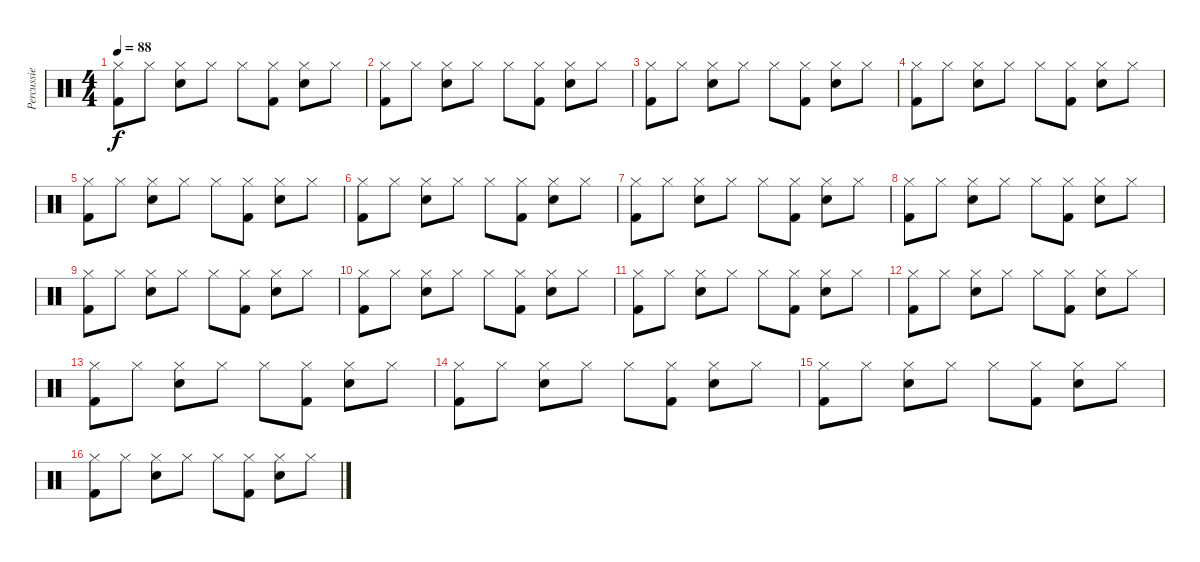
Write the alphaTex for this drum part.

\track ("Percussie" "Percussie") {instrument percussion}
\staff {score}
\articulation defaults
\ts (4 4)
\tempo 88
\clef neutral
\ks c
("Hi-Hat (closed)" "Kick (hit) 2").8{dy f} "Hi-Hat (closed)".8 ("Hi-Hat (closed)" "Snare (hit) 2").8 "Hi-Hat (closed)".8 "Hi-Hat (closed)".8 ("Hi-Hat (closed)" "Kick (hit) 2").8 ("Hi-Hat (closed)" "Snare (hit) 2").8 "Hi-Hat (closed)".8 |
("Hi-Hat (closed)" "Kick (hit) 2").8 "Hi-Hat (closed)".8 ("Hi-Hat (closed)" "Snare (hit) 2").8 "Hi-Hat (closed)".8 "Hi-Hat (closed)".8 ("Hi-Hat (closed)" "Kick (hit) 2").8 ("Hi-Hat (closed)" "Snare (hit) 2").8 "Hi-Hat (closed)".8 |
("Hi-Hat (closed)" "Kick (hit) 2").8 "Hi-Hat (closed)".8 ("Hi-Hat (closed)" "Snare (hit) 2").8 "Hi-Hat (closed)".8 "Hi-Hat (closed)".8 ("Hi-Hat (closed)" "Kick (hit) 2").8 ("Hi-Hat (closed)" "Snare (hit) 2").8 "Hi-Hat (closed)".8 |
("Hi-Hat (closed)" "Kick (hit) 2").8 "Hi-Hat (closed)".8 ("Hi-Hat (closed)" "Snare (hit) 2").8 "Hi-Hat (closed)".8 "Hi-Hat (closed)".8 ("Hi-Hat (closed)" "Kick (hit) 2").8 ("Hi-Hat (closed)" "Snare (hit) 2").8 "Hi-Hat (closed)".8 |
("Hi-Hat (closed)" "Kick (hit) 2").8 "Hi-Hat (closed)".8 ("Hi-Hat (closed)" "Snare (hit) 2").8 "Hi-Hat (closed)".8 "Hi-Hat (closed)".8 ("Hi-Hat (closed)" "Kick (hit) 2").8 ("Hi-Hat (closed)" "Snare (hit) 2").8 "Hi-Hat (closed)".8 |
("Hi-Hat (closed)" "Kick (hit) 2").8 "Hi-Hat (closed)".8 ("Hi-Hat (closed)" "Snare (hit) 2").8 "Hi-Hat (closed)".8 "Hi-Hat (closed)".8 ("Hi-Hat (closed)" "Kick (hit) 2").8 ("Hi-Hat (closed)" "Snare (hit) 2").8 "Hi-Hat (closed)".8 |
("Hi-Hat (closed)" "Kick (hit) 2").8 "Hi-Hat (closed)".8 ("Hi-Hat (closed)" "Snare (hit) 2").8 "Hi-Hat (closed)".8 "Hi-Hat (closed)".8 ("Hi-Hat (closed)" "Kick (hit) 2").8 ("Hi-Hat (closed)" "Snare (hit) 2").8 "Hi-Hat (closed)".8 |
("Hi-Hat (closed)" "Kick (hit) 2").8 "Hi-Hat (closed)".8 ("Hi-Hat (closed)" "Snare (hit) 2").8 "Hi-Hat (closed)".8 "Hi-Hat (closed)".8 ("Hi-Hat (closed)" "Kick (hit) 2").8 ("Hi-Hat (closed)" "Snare (hit) 2").8 "Hi-Hat (closed)".8 |
("Hi-Hat (closed)" "Kick (hit) 2").8 "Hi-Hat (closed)".8 ("Hi-Hat (closed)" "Snare (hit) 2").8 "Hi-Hat (closed)".8 "Hi-Hat (closed)".8 ("Hi-Hat (closed)" "Kick (hit) 2").8 ("Hi-Hat (closed)" "Snare (hit) 2").8 "Hi-Hat (closed)".8 |
("Hi-Hat (closed)" "Kick (hit) 2").8 "Hi-Hat (closed)".8 ("Hi-Hat (closed)" "Snare (hit) 2").8 "Hi-Hat (closed)".8 "Hi-Hat (closed)".8 ("Hi-Hat (closed)" "Kick (hit) 2").8 ("Hi-Hat (closed)" "Snare (hit) 2").8 "Hi-Hat (closed)".8 |
("Hi-Hat (closed)" "Kick (hit) 2").8 "Hi-Hat (closed)".8 ("Hi-Hat (closed)" "Snare (hit) 2").8 "Hi-Hat (closed)".8 "Hi-Hat (closed)".8 ("Hi-Hat (closed)" "Kick (hit) 2").8 ("Hi-Hat (closed)" "Snare (hit) 2").8 "Hi-Hat (closed)".8 |
("Hi-Hat (closed)" "Kick (hit) 2").8 "Hi-Hat (closed)".8 ("Hi-Hat (closed)" "Snare (hit) 2").8 "Hi-Hat (closed)".8 "Hi-Hat (closed)".8 ("Hi-Hat (closed)" "Kick (hit) 2").8 ("Hi-Hat (closed)" "Snare (hit) 2").8 "Hi-Hat (closed)".8 |
("Hi-Hat (closed)" "Kick (hit) 2").8 "Hi-Hat (closed)".8 ("Hi-Hat (closed)" "Snare (hit) 2").8 "Hi-Hat (closed)".8 "Hi-Hat (closed)".8 ("Hi-Hat (closed)" "Kick (hit) 2").8 ("Hi-Hat (closed)" "Snare (hit) 2").8 "Hi-Hat (closed)".8 |
("Hi-Hat (closed)" "Kick (hit) 2").8 "Hi-Hat (closed)".8 ("Hi-Hat (closed)" "Snare (hit) 2").8 "Hi-Hat (closed)".8 "Hi-Hat (closed)".8 ("Hi-Hat (closed)" "Kick (hit) 2").8 ("Hi-Hat (closed)" "Snare (hit) 2").8 "Hi-Hat (closed)".8 |
("Hi-Hat (closed)" "Kick (hit) 2").8 "Hi-Hat (closed)".8 ("Hi-Hat (closed)" "Snare (hit) 2").8 "Hi-Hat (closed)".8 "Hi-Hat (closed)".8 ("Hi-Hat (closed)" "Kick (hit) 2").8 ("Hi-Hat (closed)" "Snare (hit) 2").8 "Hi-Hat (closed)".8 |
("Hi-Hat (closed)" "Kick (hit) 2").8 "Hi-Hat (closed)".8 ("Hi-Hat (closed)" "Snare (hit) 2").8 "Hi-Hat (closed)".8 "Hi-Hat (closed)".8 ("Hi-Hat (closed)" "Kick (hit) 2").8 ("Hi-Hat (closed)" "Snare (hit) 2").8 "Hi-Hat (closed)".8
